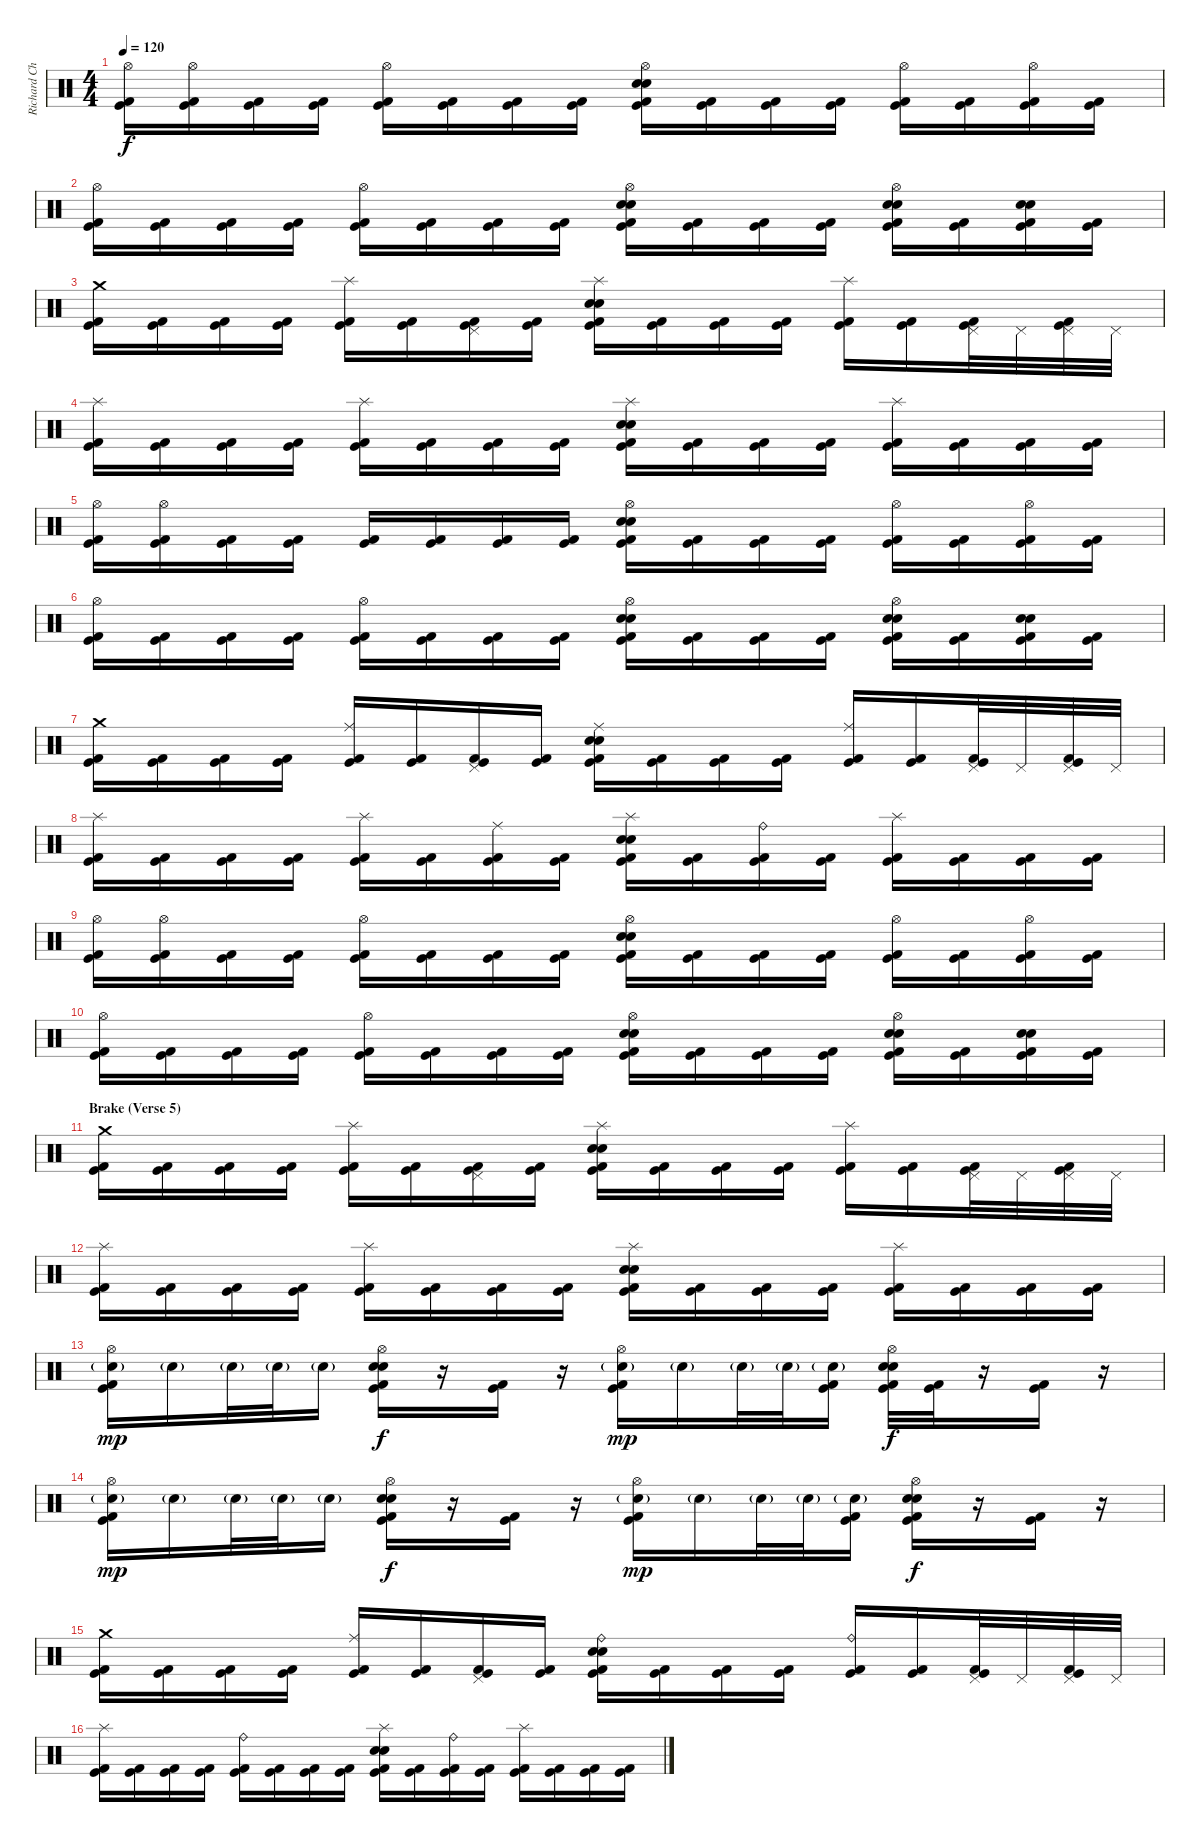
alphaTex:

\track ("Richard Christy" "Richard Ch") {instrument percussion}
\staff {score}
\articulation defaults
\ts (4 4)
\tempo 120
\clef neutral
\ks c
("Hi-Hat (open)" "Kick (hit)" "Kick (hit) 2").16{dy f} ("Hi-Hat (open)" "Kick (hit)" "Kick (hit) 2").16 ("Kick (hit)" "Kick (hit) 2").16 ("Kick (hit)" "Kick (hit) 2").16 ("Hi-Hat (open)" "Kick (hit)" "Kick (hit) 2").16 ("Kick (hit)" "Kick (hit) 2").16 ("Kick (hit)" "Kick (hit) 2").16 ("Kick (hit)" "Kick (hit) 2").16 ("Hi-Hat (open)" "Snare (hit) 2" "Electric Snare (hit)" "Kick (hit)" "Kick (hit) 2").16 ("Kick (hit)" "Kick (hit) 2").16 ("Kick (hit)" "Kick (hit) 2").16 ("Kick (hit)" "Kick (hit) 2").16 ("Hi-Hat (open)" "Kick (hit)" "Kick (hit) 2").16 ("Kick (hit)" "Kick (hit) 2").16 ("Hi-Hat (open)" "Kick (hit)" "Kick (hit) 2").16 ("Kick (hit)" "Kick (hit) 2").16 |
("Hi-Hat (open)" "Kick (hit)" "Kick (hit) 2").16 ("Kick (hit)" "Kick (hit) 2").16 ("Kick (hit)" "Kick (hit) 2").16 ("Kick (hit)" "Kick (hit) 2").16 ("Hi-Hat (open)" "Kick (hit)" "Kick (hit) 2").16 ("Kick (hit)" "Kick (hit) 2").16 ("Kick (hit)" "Kick (hit) 2").16 ("Kick (hit)" "Kick (hit) 2").16 ("Hi-Hat (open)" "Snare (hit) 2" "Electric Snare (hit)" "Kick (hit)" "Kick (hit) 2").16 ("Kick (hit)" "Kick (hit) 2").16 ("Kick (hit)" "Kick (hit) 2").16 ("Kick (hit)" "Kick (hit) 2").16 ("Hi-Hat (open)" "Electric Snare (hit)" "Snare (hit) 2" "Kick (hit)" "Kick (hit) 2").16 ("Kick (hit)" "Kick (hit) 2").16 ("Electric Snare (hit)" "Snare (hit) 2" "Kick (hit)" "Kick (hit) 2").16 ("Kick (hit)" "Kick (hit) 2").16 |
("Crash medium (hit)" "Kick (hit)" "Kick (hit) 2").16 ("Kick (hit)" "Kick (hit) 2").16 ("Kick (hit)" "Kick (hit) 2").16 ("Kick (hit)" "Kick (hit) 2").16 ("Splash (hit)" "Kick (hit)" "Kick (hit) 2").16 ("Kick (hit)" "Kick (hit) 2").16 ("Pedal Hi-Hat (hit)" "Kick (hit)" "Kick (hit) 2").16 ("Kick (hit)" "Kick (hit) 2").16 ("Splash (hit)" "Snare (hit) 2" "Electric Snare (hit)" "Kick (hit)" "Kick (hit) 2").16 ("Kick (hit)" "Kick (hit) 2").16 ("Kick (hit)" "Kick (hit) 2").16 ("Kick (hit)" "Kick (hit) 2").16 ("Splash (hit)" "Kick (hit)" "Kick (hit) 2").16 ("Kick (hit)" "Kick (hit) 2").16 ("Pedal Hi-Hat (hit)" "Kick (hit)" "Kick (hit) 2").32 "Pedal Hi-Hat (hit)".32 ("Pedal Hi-Hat (hit)" "Kick (hit)" "Kick (hit) 2").32 "Pedal Hi-Hat (hit)".32 |
("Splash (hit)" "Kick (hit)" "Kick (hit) 2").16 ("Kick (hit)" "Kick (hit) 2").16 ("Kick (hit)" "Kick (hit) 2").16 ("Kick (hit)" "Kick (hit) 2").16 ("Splash (hit)" "Kick (hit)" "Kick (hit) 2").16 ("Kick (hit)" "Kick (hit) 2").16 ("Kick (hit)" "Kick (hit) 2").16 ("Kick (hit)" "Kick (hit) 2").16 ("Splash (hit)" "Snare (hit) 2" "Electric Snare (hit)" "Kick (hit)" "Kick (hit) 2").16 ("Kick (hit)" "Kick (hit) 2").16 ("Kick (hit)" "Kick (hit) 2").16 ("Kick (hit)" "Kick (hit) 2").16 ("Splash (hit)" "Kick (hit)" "Kick (hit) 2").16 ("Kick (hit)" "Kick (hit) 2").16 ("Kick (hit)" "Kick (hit) 2").16 ("Kick (hit)" "Kick (hit) 2").16 |
("Hi-Hat (open)" "Kick (hit)" "Kick (hit) 2").16 ("Hi-Hat (open)" "Kick (hit)" "Kick (hit) 2").16 ("Kick (hit)" "Kick (hit) 2").16 ("Kick (hit)" "Kick (hit) 2").16 ("Kick (hit)" "Kick (hit) 2").16 ("Kick (hit)" "Kick (hit) 2").16 ("Kick (hit)" "Kick (hit) 2").16 ("Kick (hit)" "Kick (hit) 2").16 ("Hi-Hat (open)" "Snare (hit) 2" "Electric Snare (hit)" "Kick (hit)" "Kick (hit) 2").16 ("Kick (hit)" "Kick (hit) 2").16 ("Kick (hit)" "Kick (hit) 2").16 ("Kick (hit)" "Kick (hit) 2").16 ("Hi-Hat (open)" "Kick (hit)" "Kick (hit) 2").16 ("Kick (hit)" "Kick (hit) 2").16 ("Hi-Hat (open)" "Kick (hit)" "Kick (hit) 2").16 ("Kick (hit)" "Kick (hit) 2").16 |
("Hi-Hat (open)" "Kick (hit)" "Kick (hit) 2").16 ("Kick (hit)" "Kick (hit) 2").16 ("Kick (hit)" "Kick (hit) 2").16 ("Kick (hit)" "Kick (hit) 2").16 ("Hi-Hat (open)" "Kick (hit)" "Kick (hit) 2").16 ("Kick (hit)" "Kick (hit) 2").16 ("Kick (hit)" "Kick (hit) 2").16 ("Kick (hit)" "Kick (hit) 2").16 ("Hi-Hat (open)" "Snare (hit) 2" "Electric Snare (hit)" "Kick (hit)" "Kick (hit) 2").16 ("Kick (hit)" "Kick (hit) 2").16 ("Kick (hit)" "Kick (hit) 2").16 ("Kick (hit)" "Kick (hit) 2").16 ("Hi-Hat (open)" "Electric Snare (hit)" "Snare (hit) 2" "Kick (hit)" "Kick (hit) 2").16 ("Kick (hit)" "Kick (hit) 2").16 ("Electric Snare (hit)" "Snare (hit) 2" "Kick (hit)" "Kick (hit) 2").16 ("Kick (hit)" "Kick (hit) 2").16 |
("Crash medium (hit)" "Kick (hit)" "Kick (hit) 2").16 ("Kick (hit)" "Kick (hit) 2").16 ("Kick (hit)" "Kick (hit) 2").16 ("Kick (hit)" "Kick (hit) 2").16 ("Ride (middle)" "Kick (hit)" "Kick (hit) 2").16 ("Kick (hit)" "Kick (hit) 2").16 ("Pedal Hi-Hat (hit)" "Kick (hit)" "Kick (hit) 2").16 ("Kick (hit)" "Kick (hit) 2").16 ("Ride (middle)" "Snare (hit) 2" "Electric Snare (hit)" "Kick (hit)" "Kick (hit) 2").16 ("Kick (hit)" "Kick (hit) 2").16 ("Kick (hit)" "Kick (hit) 2").16 ("Kick (hit)" "Kick (hit) 2").16 ("Ride (middle)" "Kick (hit)" "Kick (hit) 2").16 ("Kick (hit)" "Kick (hit) 2").16 ("Pedal Hi-Hat (hit)" "Kick (hit)" "Kick (hit) 2").32 "Pedal Hi-Hat (hit)".32 ("Pedal Hi-Hat (hit)" "Kick (hit)" "Kick (hit) 2").32 "Pedal Hi-Hat (hit)".32 |
("Splash (hit)" "Kick (hit)" "Kick (hit) 2").16 ("Kick (hit)" "Kick (hit) 2").16 ("Kick (hit)" "Kick (hit) 2").16 ("Kick (hit)" "Kick (hit) 2").16 ("Splash (hit)" "Kick (hit)" "Kick (hit) 2").16 ("Kick (hit)" "Kick (hit) 2").16 ("Ride (middle)" "Kick (hit)" "Kick (hit) 2").16 ("Kick (hit)" "Kick (hit) 2").16 ("Splash (hit)" "Snare (hit) 2" "Electric Snare (hit)" "Kick (hit)" "Kick (hit) 2").16 ("Kick (hit)" "Kick (hit) 2").16 ("Ride (bell)" "Kick (hit)" "Kick (hit) 2").16 ("Kick (hit)" "Kick (hit) 2").16 ("Splash (hit)" "Kick (hit)" "Kick (hit) 2").16 ("Kick (hit)" "Kick (hit) 2").16 ("Kick (hit)" "Kick (hit) 2").16 ("Kick (hit)" "Kick (hit) 2").16 |
("Hi-Hat (open)" "Kick (hit)" "Kick (hit) 2").16 ("Hi-Hat (open)" "Kick (hit)" "Kick (hit) 2").16 ("Kick (hit)" "Kick (hit) 2").16 ("Kick (hit)" "Kick (hit) 2").16 ("Hi-Hat (open)" "Kick (hit)" "Kick (hit) 2").16 ("Kick (hit)" "Kick (hit) 2").16 ("Kick (hit)" "Kick (hit) 2").16 ("Kick (hit)" "Kick (hit) 2").16 ("Hi-Hat (open)" "Snare (hit) 2" "Electric Snare (hit)" "Kick (hit)" "Kick (hit) 2").16 ("Kick (hit)" "Kick (hit) 2").16 ("Kick (hit)" "Kick (hit) 2").16 ("Kick (hit)" "Kick (hit) 2").16 ("Hi-Hat (open)" "Kick (hit)" "Kick (hit) 2").16 ("Kick (hit)" "Kick (hit) 2").16 ("Hi-Hat (open)" "Kick (hit)" "Kick (hit) 2").16 ("Kick (hit)" "Kick (hit) 2").16 |
("Hi-Hat (open)" "Kick (hit)" "Kick (hit) 2").16 ("Kick (hit)" "Kick (hit) 2").16 ("Kick (hit)" "Kick (hit) 2").16 ("Kick (hit)" "Kick (hit) 2").16 ("Hi-Hat (open)" "Kick (hit)" "Kick (hit) 2").16 ("Kick (hit)" "Kick (hit) 2").16 ("Kick (hit)" "Kick (hit) 2").16 ("Kick (hit)" "Kick (hit) 2").16 ("Hi-Hat (open)" "Snare (hit) 2" "Electric Snare (hit)" "Kick (hit)" "Kick (hit) 2").16 ("Kick (hit)" "Kick (hit) 2").16 ("Kick (hit)" "Kick (hit) 2").16 ("Kick (hit)" "Kick (hit) 2").16 ("Hi-Hat (open)" "Electric Snare (hit)" "Snare (hit) 2" "Kick (hit)" "Kick (hit) 2").16 ("Kick (hit)" "Kick (hit) 2").16 ("Electric Snare (hit)" "Snare (hit) 2" "Kick (hit)" "Kick (hit) 2").16 ("Kick (hit)" "Kick (hit) 2").16 |
\section ("" "Brake (Verse 5)")
("Crash medium (hit)" "Kick (hit)" "Kick (hit) 2").16 ("Kick (hit)" "Kick (hit) 2").16 ("Kick (hit)" "Kick (hit) 2").16 ("Kick (hit)" "Kick (hit) 2").16 ("Splash (hit)" "Kick (hit)" "Kick (hit) 2").16 ("Kick (hit)" "Kick (hit) 2").16 ("Pedal Hi-Hat (hit)" "Kick (hit)" "Kick (hit) 2").16 ("Kick (hit)" "Kick (hit) 2").16 ("Splash (hit)" "Snare (hit) 2" "Electric Snare (hit)" "Kick (hit)" "Kick (hit) 2").16 ("Kick (hit)" "Kick (hit) 2").16 ("Kick (hit)" "Kick (hit) 2").16 ("Kick (hit)" "Kick (hit) 2").16 ("Splash (hit)" "Kick (hit)" "Kick (hit) 2").16 ("Kick (hit)" "Kick (hit) 2").16 ("Pedal Hi-Hat (hit)" "Kick (hit)" "Kick (hit) 2").32 "Pedal Hi-Hat (hit)".32 ("Pedal Hi-Hat (hit)" "Kick (hit)" "Kick (hit) 2").32 "Pedal Hi-Hat (hit)".32 |
("Splash (hit)" "Kick (hit)" "Kick (hit) 2").16 ("Kick (hit)" "Kick (hit) 2").16 ("Kick (hit)" "Kick (hit) 2").16 ("Kick (hit)" "Kick (hit) 2").16 ("Splash (hit)" "Kick (hit)" "Kick (hit) 2").16 ("Kick (hit)" "Kick (hit) 2").16 ("Kick (hit)" "Kick (hit) 2").16 ("Kick (hit)" "Kick (hit) 2").16 ("Splash (hit)" "Snare (hit) 2" "Electric Snare (hit)" "Kick (hit)" "Kick (hit) 2").16 ("Kick (hit)" "Kick (hit) 2").16 ("Kick (hit)" "Kick (hit) 2").16 ("Kick (hit)" "Kick (hit) 2").16 ("Splash (hit)" "Kick (hit)" "Kick (hit) 2").16 ("Kick (hit)" "Kick (hit) 2").16 ("Kick (hit)" "Kick (hit) 2").16 ("Kick (hit)" "Kick (hit) 2").16 |
("Hi-Hat (open)" "Snare (hit) 2"{g} "Kick (hit)" "Kick (hit) 2").16{dy mp} "Snare (hit) 2"{g}.16 "Snare (hit) 2"{g}.32 "Snare (hit) 2"{g}.32 "Snare (hit) 2"{g}.16 ("Snare (hit) 2" "Electric Snare (hit)" "Hi-Hat (open)" "Kick (hit)" "Kick (hit) 2").16{dy f} r.16 ("Kick (hit)" "Kick (hit) 2").16 r.16 ("Hi-Hat (open)" "Snare (hit) 2"{g} "Kick (hit)" "Kick (hit) 2").16{dy mp} "Snare (hit) 2"{g}.16 "Snare (hit) 2"{g}.32 "Snare (hit) 2"{g}.32 ("Snare (hit) 2"{g} "Kick (hit)" "Kick (hit) 2").16 ("Hi-Hat (open)" "Snare (hit) 2" "Electric Snare (hit)" "Kick (hit)" "Kick (hit) 2").32{dy f} ("Kick (hit)" "Kick (hit) 2").32 r.16 ("Kick (hit)" "Kick (hit) 2").16 r.16 |
("Hi-Hat (open)" "Snare (hit) 2"{g} "Kick (hit)" "Kick (hit) 2").16{dy mp} "Snare (hit) 2"{g}.16 "Snare (hit) 2"{g}.32 "Snare (hit) 2"{g}.32 "Snare (hit) 2"{g}.16 ("Snare (hit) 2" "Electric Snare (hit)" "Hi-Hat (open)" "Kick (hit)" "Kick (hit) 2").16{dy f} r.16 ("Kick (hit)" "Kick (hit) 2").16 r.16 ("Hi-Hat (open)" "Snare (hit) 2"{g} "Kick (hit)" "Kick (hit) 2").16{dy mp} "Snare (hit) 2"{g}.16 "Snare (hit) 2"{g}.32 "Snare (hit) 2"{g}.32 ("Snare (hit) 2"{g} "Kick (hit)" "Kick (hit) 2").16 ("Hi-Hat (open)" "Snare (hit) 2" "Electric Snare (hit)" "Kick (hit)" "Kick (hit) 2").16{dy f} r.16 ("Kick (hit)" "Kick (hit) 2").16 r.16 |
("Crash medium (hit)" "Kick (hit)" "Kick (hit) 2").16 ("Kick (hit)" "Kick (hit) 2").16 ("Kick (hit)" "Kick (hit) 2").16 ("Kick (hit)" "Kick (hit) 2").16 ("Ride (middle)" "Kick (hit)" "Kick (hit) 2").16 ("Kick (hit)" "Kick (hit) 2").16 ("Pedal Hi-Hat (hit)" "Kick (hit)" "Kick (hit) 2").16 ("Kick (hit)" "Kick (hit) 2").16 ("Ride (bell)" "Snare (hit) 2" "Electric Snare (hit)" "Kick (hit)" "Kick (hit) 2").16 ("Kick (hit)" "Kick (hit) 2").16 ("Kick (hit)" "Kick (hit) 2").16 ("Kick (hit)" "Kick (hit) 2").16 ("Ride (bell)" "Kick (hit)" "Kick (hit) 2").16 ("Kick (hit)" "Kick (hit) 2").16 ("Pedal Hi-Hat (hit)" "Kick (hit)" "Kick (hit) 2").32 "Pedal Hi-Hat (hit)".32 ("Pedal Hi-Hat (hit)" "Kick (hit)" "Kick (hit) 2").32 "Pedal Hi-Hat (hit)".32 |
("Splash (hit)" "Kick (hit)" "Kick (hit) 2").16 ("Kick (hit)" "Kick (hit) 2").16 ("Kick (hit)" "Kick (hit) 2").16 ("Kick (hit)" "Kick (hit) 2").16 ("Ride (bell)" "Kick (hit)" "Kick (hit) 2").16 ("Kick (hit)" "Kick (hit) 2").16 ("Kick (hit)" "Kick (hit) 2").16 ("Kick (hit)" "Kick (hit) 2").16 ("Splash (hit)" "Snare (hit) 2" "Electric Snare (hit)" "Kick (hit)" "Kick (hit) 2").16 ("Kick (hit)" "Kick (hit) 2").16 ("Ride (bell)" "Kick (hit)" "Kick (hit) 2").16 ("Kick (hit)" "Kick (hit) 2").16 ("Splash (hit)" "Kick (hit)" "Kick (hit) 2").16 ("Kick (hit)" "Kick (hit) 2").16 ("Kick (hit)" "Kick (hit) 2").16 ("Kick (hit)" "Kick (hit) 2").16
